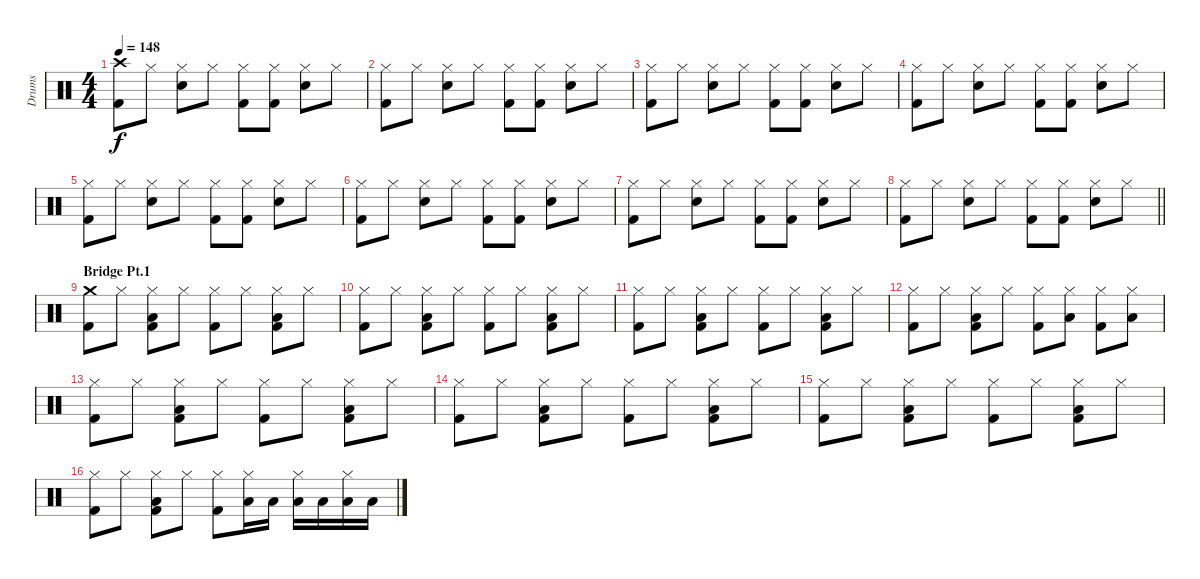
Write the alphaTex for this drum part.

\track ("Drums " "Drums ") {instrument percussion}
\staff {score}
\articulation defaults
\ts (4 4)
\tempo 148
\clef neutral
\ks c
("Crash high (hit)" "Kick (hit) 2").8{dy f} "Hi-Hat (closed)".8 ("Hi-Hat (closed)" "Snare (hit) 2").8 "Hi-Hat (closed)".8 ("Hi-Hat (closed)" "Kick (hit) 2").8 ("Hi-Hat (closed)" "Kick (hit) 2").8 ("Hi-Hat (closed)" "Snare (hit) 2").8 "Hi-Hat (closed)".8 |
("Hi-Hat (closed)" "Kick (hit) 2").8 "Hi-Hat (closed)".8 ("Hi-Hat (closed)" "Snare (hit) 2").8 "Hi-Hat (closed)".8 ("Hi-Hat (closed)" "Kick (hit) 2").8 ("Hi-Hat (closed)" "Kick (hit) 2").8 ("Hi-Hat (closed)" "Snare (hit) 2").8 "Hi-Hat (closed)".8 |
("Hi-Hat (closed)" "Kick (hit) 2").8 "Hi-Hat (closed)".8 ("Hi-Hat (closed)" "Snare (hit) 2").8 "Hi-Hat (closed)".8 ("Hi-Hat (closed)" "Kick (hit) 2").8 ("Hi-Hat (closed)" "Kick (hit) 2").8 ("Hi-Hat (closed)" "Snare (hit) 2").8 "Hi-Hat (closed)".8 |
("Hi-Hat (closed)" "Kick (hit) 2").8 "Hi-Hat (closed)".8 ("Hi-Hat (closed)" "Snare (hit) 2").8 "Hi-Hat (closed)".8 ("Hi-Hat (closed)" "Kick (hit) 2").8 ("Hi-Hat (closed)" "Kick (hit) 2").8 ("Hi-Hat (closed)" "Snare (hit) 2").8 "Hi-Hat (closed)".8 |
("Hi-Hat (closed)" "Kick (hit) 2").8 "Hi-Hat (closed)".8 ("Hi-Hat (closed)" "Snare (hit) 2").8 "Hi-Hat (closed)".8 ("Hi-Hat (closed)" "Kick (hit) 2").8 ("Hi-Hat (closed)" "Kick (hit) 2").8 ("Hi-Hat (closed)" "Snare (hit) 2").8 "Hi-Hat (closed)".8 |
("Hi-Hat (closed)" "Kick (hit) 2").8 "Hi-Hat (closed)".8 ("Hi-Hat (closed)" "Snare (hit) 2").8 "Hi-Hat (closed)".8 ("Hi-Hat (closed)" "Kick (hit) 2").8 ("Hi-Hat (closed)" "Kick (hit) 2").8 ("Hi-Hat (closed)" "Snare (hit) 2").8 "Hi-Hat (closed)".8 |
("Hi-Hat (closed)" "Kick (hit) 2").8 "Hi-Hat (closed)".8 ("Hi-Hat (closed)" "Snare (hit) 2").8 "Hi-Hat (closed)".8 ("Hi-Hat (closed)" "Kick (hit) 2").8 ("Hi-Hat (closed)" "Kick (hit) 2").8 ("Hi-Hat (closed)" "Snare (hit) 2").8 "Hi-Hat (closed)".8 |
\barLineRight lightlight
("Hi-Hat (closed)" "Kick (hit) 2").8 "Hi-Hat (closed)".8 ("Hi-Hat (closed)" "Snare (hit) 2").8 "Hi-Hat (closed)".8 ("Hi-Hat (closed)" "Kick (hit) 2").8 ("Hi-Hat (closed)" "Kick (hit) 2").8 ("Hi-Hat (closed)" "Snare (hit) 2").8 "Hi-Hat (closed)".8 |
\section ("" "Bridge Pt.1")
("Crash medium (hit)" "Kick (hit) 2").8 "Hi-Hat (closed)".8 ("Hi-Hat (closed)" "Low Floor Tom (hit)" "Kick (hit) 2").8 "Hi-Hat (closed)".8 ("Hi-Hat (closed)" "Kick (hit) 2").8 "Hi-Hat (closed)".8 ("Hi-Hat (closed)" "Low Floor Tom (hit)" "Kick (hit) 2").8 "Hi-Hat (closed)".8 |
("Hi-Hat (closed)" "Kick (hit) 2").8 "Hi-Hat (closed)".8 ("Hi-Hat (closed)" "Low Floor Tom (hit)" "Kick (hit) 2").8 "Hi-Hat (closed)".8 ("Hi-Hat (closed)" "Kick (hit) 2").8 "Hi-Hat (closed)".8 ("Hi-Hat (closed)" "Low Floor Tom (hit)" "Kick (hit) 2").8 "Hi-Hat (closed)".8 |
("Hi-Hat (closed)" "Kick (hit) 2").8 "Hi-Hat (closed)".8 ("Hi-Hat (closed)" "Low Floor Tom (hit)" "Kick (hit) 2").8 "Hi-Hat (closed)".8 ("Hi-Hat (closed)" "Kick (hit) 2").8 "Hi-Hat (closed)".8 ("Hi-Hat (closed)" "Low Floor Tom (hit)" "Kick (hit) 2").8 "Hi-Hat (closed)".8 |
("Hi-Hat (closed)" "Kick (hit) 2").8 "Hi-Hat (closed)".8 ("Hi-Hat (closed)" "Low Floor Tom (hit)" "Kick (hit) 2").8 "Hi-Hat (closed)".8 ("Hi-Hat (closed)" "Kick (hit) 2").8 ("Hi-Hat (closed)" "Low Floor Tom (hit)").8 ("Hi-Hat (closed)" "Kick (hit) 2").8 ("Hi-Hat (closed)" "Low Floor Tom (hit)").8 |
("Hi-Hat (closed)" "Kick (hit) 2").8 "Hi-Hat (closed)".8 ("Hi-Hat (closed)" "Low Floor Tom (hit)" "Kick (hit) 2").8 "Hi-Hat (closed)".8 ("Hi-Hat (closed)" "Kick (hit) 2").8 "Hi-Hat (closed)".8 ("Hi-Hat (closed)" "Low Floor Tom (hit)" "Kick (hit) 2").8 "Hi-Hat (closed)".8 |
("Hi-Hat (closed)" "Kick (hit) 2").8 "Hi-Hat (closed)".8 ("Hi-Hat (closed)" "Low Floor Tom (hit)" "Kick (hit) 2").8 "Hi-Hat (closed)".8 ("Hi-Hat (closed)" "Kick (hit) 2").8 "Hi-Hat (closed)".8 ("Hi-Hat (closed)" "Low Floor Tom (hit)" "Kick (hit) 2").8 "Hi-Hat (closed)".8 |
("Hi-Hat (closed)" "Kick (hit) 2").8 "Hi-Hat (closed)".8 ("Hi-Hat (closed)" "Low Floor Tom (hit)" "Kick (hit) 2").8 "Hi-Hat (closed)".8 ("Hi-Hat (closed)" "Kick (hit) 2").8 "Hi-Hat (closed)".8 ("Hi-Hat (closed)" "Low Floor Tom (hit)" "Kick (hit) 2").8 "Hi-Hat (closed)".8 |
("Hi-Hat (closed)" "Kick (hit) 2").8 "Hi-Hat (closed)".8 ("Hi-Hat (closed)" "Low Floor Tom (hit)" "Kick (hit) 2").8 "Hi-Hat (closed)".8 ("Hi-Hat (closed)" "Kick (hit) 2").8 ("Hi-Hat (closed)" "Low Floor Tom (hit)").16 "Low Floor Tom (hit)".16 ("Hi-Hat (closed)" "Low Floor Tom (hit)").16 "Low Floor Tom (hit)".16 ("Hi-Hat (closed)" "Low Floor Tom (hit)").16 "Low Floor Tom (hit)".16
